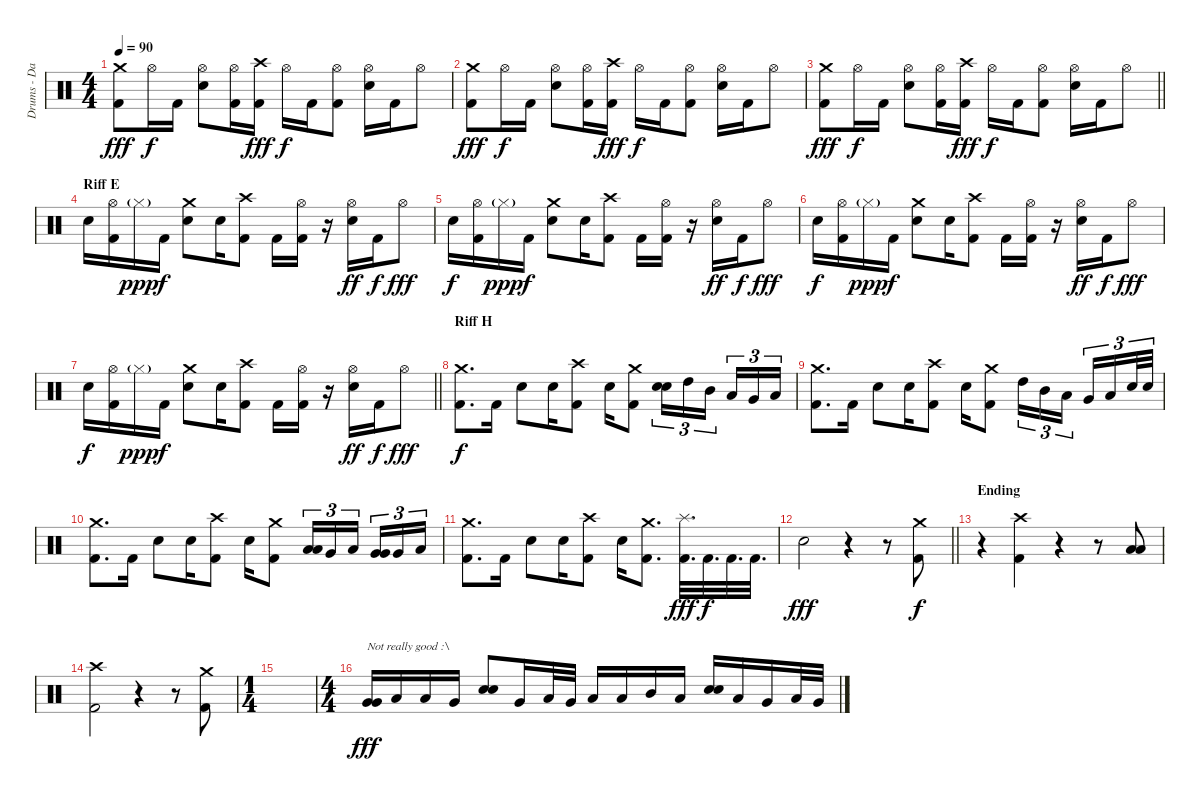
\track ("Drums - Danny Carey" "Drums - Da") {instrument percussion}
\staff {score}
\articulation defaults
\ts (4 4)
\tempo 90
\clef neutral
\ks c
("Crash medium (hit)" "Kick (hit) 2").8{dy fff} "Hi-Hat (open)".16{dy f} "Kick (hit) 2".16 ("Electric Snare (hit)" "Hi-Hat (open)").8 ("Kick (hit) 2" "Hi-Hat (open)").16 ("Crash high (hit)" "Kick (hit) 2").16{dy fff} "Hi-Hat (open)".16{dy f} "Kick (hit) 2".16 ("Kick (hit) 2" "Hi-Hat (open)").8 ("Electric Snare (hit)" "Hi-Hat (open)").16 "Kick (hit) 2".16 "Hi-Hat (open)".8 |
("Crash medium (hit)" "Kick (hit) 2").8{dy fff} "Hi-Hat (open)".16{dy f} "Kick (hit) 2".16 ("Electric Snare (hit)" "Hi-Hat (open)").8 ("Kick (hit) 2" "Hi-Hat (open)").16 ("Crash high (hit)" "Kick (hit) 2").16{dy fff} "Hi-Hat (open)".16{dy f} "Kick (hit) 2".16 ("Kick (hit) 2" "Hi-Hat (open)").8 ("Electric Snare (hit)" "Hi-Hat (open)").16 "Kick (hit) 2".16 "Hi-Hat (open)".8 |
\barLineRight lightlight
("Crash medium (hit)" "Kick (hit) 2").8{dy fff} "Hi-Hat (open)".16{dy f} "Kick (hit) 2".16 ("Electric Snare (hit)" "Hi-Hat (open)").8 ("Kick (hit) 2" "Hi-Hat (open)").16 ("Crash high (hit)" "Kick (hit) 2").16{dy fff} "Hi-Hat (open)".16{dy f} "Kick (hit) 2".16 ("Kick (hit) 2" "Hi-Hat (open)").8 ("Electric Snare (hit)" "Hi-Hat (open)").16 "Kick (hit) 2".16 "Hi-Hat (open)".8 |
\section ("" "Riff E")
"Electric Snare (hit)".16 ("Kick (hit) 2" "Hi-Hat (open)").16 "Hi-Hat (closed)"{g}.16{dy ppp} "Kick (hit) 2".16{dy f} ("Crash medium (hit)" "Electric Snare (hit)").8 "Electric Snare (hit)".16 ("Crash high (hit)" "Kick (hit) 2").8 "Kick (hit) 2".16 ("Kick (hit) 2" "Hi-Hat (open)").16 r.16 ("Electric Snare (hit)" "Hi-Hat (open)").16{dy ff} "Kick (hit) 2".16{dy f} "Hi-Hat (open)".8{dy fff} |
"Electric Snare (hit)".16{dy f} ("Kick (hit) 2" "Hi-Hat (open)").16 "Hi-Hat (closed)"{g}.16{dy ppp} "Kick (hit) 2".16{dy f} ("Crash medium (hit)" "Electric Snare (hit)").8 "Electric Snare (hit)".16 ("Crash high (hit)" "Kick (hit) 2").8 "Kick (hit) 2".16 ("Kick (hit) 2" "Hi-Hat (open)").16 r.16 ("Electric Snare (hit)" "Hi-Hat (open)").16{dy ff} "Kick (hit) 2".16{dy f} "Hi-Hat (open)".8{dy fff} |
"Electric Snare (hit)".16{dy f} ("Kick (hit) 2" "Hi-Hat (open)").16 "Hi-Hat (closed)"{g}.16{dy ppp} "Kick (hit) 2".16{dy f} ("Crash medium (hit)" "Electric Snare (hit)").8 "Electric Snare (hit)".16 ("Crash high (hit)" "Kick (hit) 2").8 "Kick (hit) 2".16 ("Kick (hit) 2" "Hi-Hat (open)").16 r.16 ("Electric Snare (hit)" "Hi-Hat (open)").16{dy ff} "Kick (hit) 2".16{dy f} "Hi-Hat (open)".8{dy fff} |
\barLineRight lightlight "Electric Snare (hit)".16{dy f}
("Kick (hit) 2" "Hi-Hat (open)").16 "Hi-Hat (closed)"{g}.16{dy ppp} "Kick (hit) 2".16{dy f} ("Crash medium (hit)" "Electric Snare (hit)").8 "Electric Snare (hit)".16 ("Crash high (hit)" "Kick (hit) 2").8 "Kick (hit) 2".16 ("Kick (hit) 2" "Hi-Hat (open)").16 r.16 ("Electric Snare (hit)" "Hi-Hat (open)").16{dy ff} "Kick (hit) 2".16{dy f} "Hi-Hat (open)".8{dy fff} |
\section ("" "Riff H")
("Crash medium (hit)" "Kick (hit) 2").8{d dy f} "Kick (hit) 2".16 "Electric Snare (hit)".8 "Electric Snare (hit)".16 ("Crash high (hit)" "Kick (hit) 2").8 "Electric Snare (hit)".16 ("Crash medium (hit)" "Kick (hit) 2").8 ("Electric Snare (hit)" "Electric Snare (hit)").16{tu (3 2) bd 60} "High Tom (hit)".16{tu (3 2)} "Mid Tom (hit)".16{tu (3 2) beam splitsecondary} "Low Tom (hit)".16{tu (3 2)} "Very Low Tom (hit)".16{tu (3 2)} "Low Floor Tom (hit)".16{tu (3 2)} |
("Crash medium (hit)" "Kick (hit) 2").8{d} "Kick (hit) 2".16 "Electric Snare (hit)".8 "Electric Snare (hit)".16 ("Crash high (hit)" "Kick (hit) 2").8 "Electric Snare (hit)".16 ("Crash medium (hit)" "Kick (hit) 2").8 "High Tom (hit)".16{tu (3 2)} "Mid Tom (hit)".16{tu (3 2)} "Low Tom (hit)".16{tu (3 2) beam splitsecondary} "Very Low Tom (hit)".16{tu (3 2)} "Low Floor Tom (hit)".16{tu (3 2)} "Electric Snare (hit)".32{tu (3 2)} "Electric Snare (hit)".32{tu (3 2)} |
("Crash medium (hit)" "Kick (hit) 2").8{d} "Kick (hit) 2".16 "Electric Snare (hit)".8 "Electric Snare (hit)".16 ("Crash high (hit)" "Kick (hit) 2").8 "Electric Snare (hit)".16 ("Crash medium (hit)" "Kick (hit) 2").8 ("Low Tom (hit)" "Low Tom (hit)").16{tu (3 2) bd 60} "Very Low Tom (hit)".16{tu (3 2)} "Low Floor Tom (hit)".16{tu (3 2) beam splitsecondary} ("Very Low Tom (hit)" "Very Low Tom (hit)").16{tu (3 2) bd 60} "Very Low Tom (hit)".16{tu (3 2)} "Low Floor Tom (hit)".16{tu (3 2)} |
("Crash medium (hit)" "Kick (hit) 2").8{d} "Kick (hit) 2".16 "Electric Snare (hit)".8 "Electric Snare (hit)".16 ("Crash high (hit)" "Kick (hit) 2").8 "Electric Snare (hit)".16 ("Crash medium (hit)" "Kick (hit) 2").8{d} ("Splash (hit)" "Kick (hit) 2").32{d dy fff} "Kick (hit) 2".32{d dy f} "Kick (hit) 2".32{d} "Kick (hit) 2".32{d} |
\barLineRight lightlight "Electric Snare (hit)".2{dy fff}
r.4 r.8 ("Crash medium (hit)" "Kick (hit) 2").8{dy f} |
\section ("" "Ending")
r.4 ("Crash high (hit)" "Kick (hit) 2").4 r.4 r.8 ("Low Floor Tom (hit)" "Low Floor Tom (hit)").8{bd 240} |
("Crash high (hit)" "Kick (hit) 2").2 r.4 r.8 ("Crash medium (hit)" "Kick (hit) 2").8 |
\ts (1 4)
|
\ts (4 4)
("Very Low Tom (hit)" "Very Low Tom (hit)").16{bd 60 txt "Not really good :\\" dy fff} "Low Floor Tom (hit)".16 "Low Floor Tom (hit)".16 "Very Low Tom (hit)".16 ("Electric Snare (hit)" "Electric Snare (hit)").8{bd 60} "Very Low Tom (hit)".16 "Low Floor Tom (hit)".32 "Very Low Tom (hit)".32 "Low Floor Tom (hit)".16 "Low Floor Tom (hit)".16 "Mid Tom (hit)".16 "Low Tom (hit)".16 ("Electric Snare (hit)" "Electric Snare (hit)").16{bd 60} "Low Floor Tom (hit)".16 "Very Low Tom (hit)".16 "Low Floor Tom (hit)".32 "Very Low Tom (hit)".32
